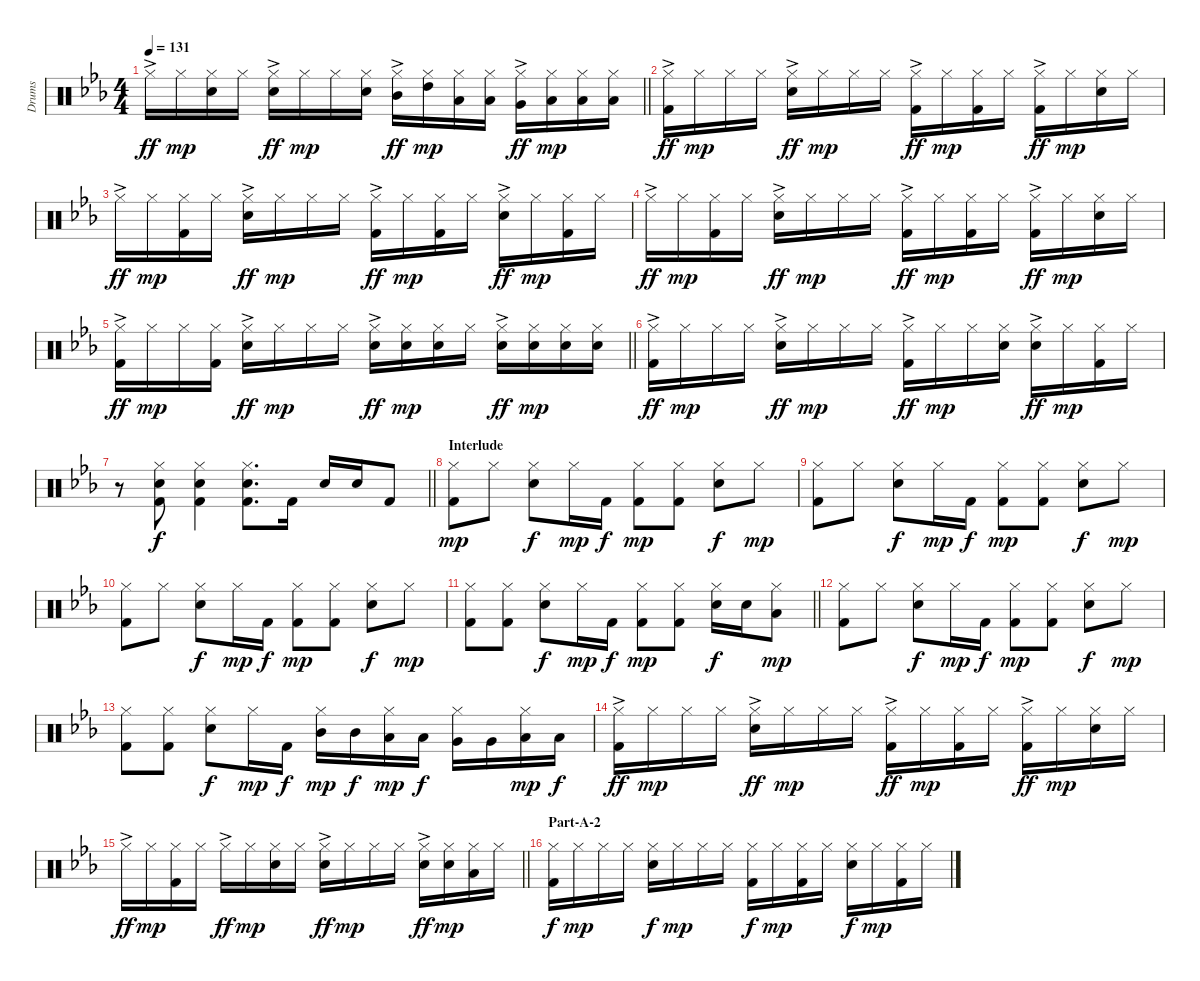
\track ("Drums" "Drums") {instrument percussion}
\staff {score}
\articulation defaults
\ts (4 4)
\tempo 131
\clef neutral
\barLineRight lightlight
\ks eb "Hi-Hat (closed)"{ac}.16{dy ff} "Hi-Hat (closed)".16{dy mp}
("Hi-Hat (closed)" "Snare (hit) 2").16 "Hi-Hat (closed)".16 ("Hi-Hat (closed)"{ac} "Snare (hit) 2").16{dy ff} "Hi-Hat (closed)".16{dy mp} "Hi-Hat (closed)".16 ("Hi-Hat (closed)" "Snare (hit) 2").16 ("Hi-Hat (closed)"{ac} "Mid Tom (hit)").16{dy ff} ("Hi-Hat (closed)" "High Tom (hit)").16{dy mp} ("Hi-Hat (closed)" "Low Tom (hit)").16 ("Hi-Hat (closed)" "Low Tom (hit)").16 ("Hi-Hat (closed)"{ac} "Very Low Tom (hit)").16{dy ff} ("Hi-Hat (closed)" "Low Floor Tom (hit)").16{dy mp} ("Hi-Hat (closed)" "Low Floor Tom (hit)").16 ("Hi-Hat (closed)" "Low Floor Tom (hit)").16 |
("Hi-Hat (closed)"{ac} "Kick (hit) 2").16{dy ff} "Hi-Hat (closed)".16{dy mp} "Hi-Hat (closed)".16 "Hi-Hat (closed)".16 ("Hi-Hat (closed)"{ac} "Snare (hit) 2").16{dy ff} "Hi-Hat (closed)".16{dy mp} "Hi-Hat (closed)".16 "Hi-Hat (closed)".16 ("Hi-Hat (closed)"{ac} "Kick (hit) 2").16{dy ff} "Hi-Hat (closed)".16{dy mp} ("Hi-Hat (closed)" "Kick (hit) 2").16 "Hi-Hat (closed)".16 ("Hi-Hat (closed)"{ac} "Kick (hit) 2").16{dy ff} "Hi-Hat (closed)".16{dy mp} ("Hi-Hat (closed)" "Snare (hit) 2").16 "Hi-Hat (closed)".16 |
"Hi-Hat (closed)"{ac}.16{dy ff} "Hi-Hat (closed)".16{dy mp} ("Hi-Hat (closed)" "Kick (hit) 2").16 "Hi-Hat (closed)".16 ("Hi-Hat (closed)"{ac} "Snare (hit) 2").16{dy ff} "Hi-Hat (closed)".16{dy mp} "Hi-Hat (closed)".16 "Hi-Hat (closed)".16 ("Hi-Hat (closed)"{ac} "Kick (hit) 2").16{dy ff} "Hi-Hat (closed)".16{dy mp} ("Hi-Hat (closed)" "Kick (hit) 2").16 "Hi-Hat (closed)".16 ("Hi-Hat (closed)"{ac} "Snare (hit) 2").16{dy ff} "Hi-Hat (closed)".16{dy mp} ("Hi-Hat (closed)" "Kick (hit) 2").16 "Hi-Hat (closed)".16 |
"Hi-Hat (closed)"{ac}.16{dy ff} "Hi-Hat (closed)".16{dy mp} ("Hi-Hat (closed)" "Kick (hit) 2").16 "Hi-Hat (closed)".16 ("Hi-Hat (closed)"{ac} "Snare (hit) 2").16{dy ff} "Hi-Hat (closed)".16{dy mp} "Hi-Hat (closed)".16 "Hi-Hat (closed)".16 ("Hi-Hat (closed)"{ac} "Kick (hit) 2").16{dy ff} "Hi-Hat (closed)".16{dy mp} ("Hi-Hat (closed)" "Kick (hit) 2").16 "Hi-Hat (closed)".16 ("Hi-Hat (closed)"{ac} "Kick (hit) 2").16{dy ff} "Hi-Hat (closed)".16{dy mp} ("Hi-Hat (closed)" "Snare (hit) 2").16 "Hi-Hat (closed)".16 |
\barLineRight lightlight
("Hi-Hat (closed)"{ac} "Kick (hit) 2").16{dy ff} "Hi-Hat (closed)".16{dy mp} "Hi-Hat (closed)".16 ("Hi-Hat (closed)" "Kick (hit) 2").16 ("Hi-Hat (closed)"{ac} "Snare (hit) 2").16{dy ff} "Hi-Hat (closed)".16{dy mp} "Hi-Hat (closed)".16 "Hi-Hat (closed)".16 ("Hi-Hat (closed)"{ac} "Snare (hit) 2").16{dy ff} ("Hi-Hat (closed)" "Snare (hit) 2").16{dy mp} ("Hi-Hat (closed)" "Snare (hit) 2").16 "Hi-Hat (closed)".16 ("Hi-Hat (closed)"{ac} "Snare (hit) 2").16{dy ff} ("Hi-Hat (closed)" "Snare (hit) 2").16{dy mp} ("Hi-Hat (closed)" "Snare (hit) 2").16 ("Hi-Hat (closed)" "Snare (hit) 2").16 |
("Hi-Hat (closed)"{ac} "Kick (hit) 2").16{dy ff} "Hi-Hat (closed)".16{dy mp} "Hi-Hat (closed)".16 "Hi-Hat (closed)".16 ("Hi-Hat (closed)"{ac} "Snare (hit) 2").16{dy ff} "Hi-Hat (closed)".16{dy mp} "Hi-Hat (closed)".16 "Hi-Hat (closed)".16 ("Hi-Hat (closed)"{ac} "Kick (hit) 2").16{dy ff} "Hi-Hat (closed)".16{dy mp} "Hi-Hat (closed)".16 ("Hi-Hat (closed)" "Snare (hit) 2").16 ("Hi-Hat (closed)"{ac} "Snare (hit) 2").16{dy ff} "Hi-Hat (closed)".16{dy mp} ("Hi-Hat (closed)" "Kick (hit) 2").16 "Hi-Hat (closed)".16 |
\barLineRight lightlight
r.8 ("Hi-Hat (closed)" "Snare (hit) 2" "Kick (hit) 2").8{dy f} ("Hi-Hat (closed)" "Snare (hit) 2" "Kick (hit) 2").4 ("Hi-Hat (closed)" "Snare (hit) 2" "Kick (hit) 2").8{d} "Kick (hit) 2".16 "Snare (hit) 2".16 "Snare (hit) 2".16 "Kick (hit) 2".8 |
\section ("" "Interlude")
("Hi-Hat (closed)" "Kick (hit) 2").8{dy mp} "Hi-Hat (closed)".8 ("Hi-Hat (closed)" "Snare (hit) 2").8{dy f} "Hi-Hat (closed)".16{dy mp} "Kick (hit) 2".16{dy f} ("Hi-Hat (closed)" "Kick (hit) 2").8{dy mp} ("Hi-Hat (closed)" "Kick (hit) 2").8 ("Hi-Hat (closed)" "Snare (hit) 2").8{dy f} "Hi-Hat (closed)".8{dy mp} |
("Hi-Hat (closed)" "Kick (hit) 2").8 "Hi-Hat (closed)".8 ("Hi-Hat (closed)" "Snare (hit) 2").8{dy f} "Hi-Hat (closed)".16{dy mp} "Kick (hit) 2".16{dy f} ("Hi-Hat (closed)" "Kick (hit) 2").8{dy mp} ("Hi-Hat (closed)" "Kick (hit) 2").8 ("Hi-Hat (closed)" "Snare (hit) 2").8{dy f} "Hi-Hat (closed)".8{dy mp} |
("Hi-Hat (closed)" "Kick (hit) 2").8 "Hi-Hat (closed)".8 ("Hi-Hat (closed)" "Snare (hit) 2").8{dy f} "Hi-Hat (closed)".16{dy mp} "Kick (hit) 2".16{dy f} ("Hi-Hat (closed)" "Kick (hit) 2").8{dy mp} ("Hi-Hat (closed)" "Kick (hit) 2").8 ("Hi-Hat (closed)" "Snare (hit) 2").8{dy f} "Hi-Hat (closed)".8{dy mp} |
\barLineRight lightlight
("Hi-Hat (closed)" "Kick (hit) 2").8 ("Hi-Hat (closed)" "Kick (hit) 2").8 ("Hi-Hat (closed)" "Snare (hit) 2").8{dy f} "Hi-Hat (closed)".16{dy mp} "Kick (hit) 2".16{dy f} ("Hi-Hat (closed)" "Kick (hit) 2").8{dy mp} ("Hi-Hat (closed)" "Kick (hit) 2").8 ("Hi-Hat (closed)" "Snare (hit) 2").16{dy f} "Snare (hit) 2".16 ("Hi-Hat (closed)" "Low Tom (hit)").8{dy mp} |
("Hi-Hat (closed)" "Kick (hit) 2").8 "Hi-Hat (closed)".8 ("Hi-Hat (closed)" "Snare (hit) 2").8{dy f} "Hi-Hat (closed)".16{dy mp} "Kick (hit) 2".16{dy f} ("Hi-Hat (closed)" "Kick (hit) 2").8{dy mp} ("Hi-Hat (closed)" "Kick (hit) 2").8 ("Hi-Hat (closed)" "Snare (hit) 2").8{dy f} "Hi-Hat (closed)".8{dy mp} |
("Hi-Hat (closed)" "Kick (hit) 2").8 ("Hi-Hat (closed)" "Kick (hit) 2").8 ("Hi-Hat (closed)" "Snare (hit) 2").8{dy f} "Hi-Hat (closed)".16{dy mp} "Kick (hit) 2".16{dy f} ("Hi-Hat (closed)" "Mid Tom (hit)").16{dy mp} "Mid Tom (hit)".16{dy f} ("Hi-Hat (closed)" "Low Tom (hit)").16{dy mp} "Low Tom (hit)".16{dy f} ("Hi-Hat (closed)" "Very Low Tom (hit)").16 "Very Low Tom (hit)".16 ("Hi-Hat (closed)" "Low Floor Tom (hit)").16{dy mp} "Low Floor Tom (hit)".16{dy f} |
("Hi-Hat (closed)"{ac} "Kick (hit) 2").16{dy ff} "Hi-Hat (closed)".16{dy mp} "Hi-Hat (closed)".16 "Hi-Hat (closed)".16 ("Hi-Hat (closed)"{ac} "Snare (hit) 2").16{dy ff} "Hi-Hat (closed)".16{dy mp} "Hi-Hat (closed)".16 "Hi-Hat (closed)".16 ("Hi-Hat (closed)"{ac} "Kick (hit) 2").16{dy ff} "Hi-Hat (closed)".16{dy mp} ("Hi-Hat (closed)" "Kick (hit) 2").16 "Hi-Hat (closed)".16 ("Hi-Hat (closed)"{ac} "Kick (hit) 2").16{dy ff} "Hi-Hat (closed)".16{dy mp} ("Hi-Hat (closed)" "Snare (hit) 2").16 "Hi-Hat (closed)".16 |
\barLineRight lightlight "Hi-Hat (closed)"{ac}.16{dy ff} "Hi-Hat (closed)".16{dy mp}
("Hi-Hat (closed)" "Kick (hit) 2").16 "Hi-Hat (closed)".16 "Hi-Hat (closed)"{ac}.16{dy ff} "Hi-Hat (closed)".16{dy mp} ("Hi-Hat (closed)" "Snare (hit) 2").16 "Hi-Hat (closed)".16 ("Hi-Hat (closed)"{ac} "Snare (hit) 2").16{dy ff} "Hi-Hat (closed)".16{dy mp} "Hi-Hat (closed)".16 "Hi-Hat (closed)".16 ("Hi-Hat (closed)"{ac} "Snare (hit) 2").16{dy ff} ("Hi-Hat (closed)" "Snare (hit) 2").16{dy mp} ("Hi-Hat (closed)" "Low Tom (hit)").16 "Hi-Hat (closed)".16 |
\section ("" "Part-A-2")
("Hi-Hat (closed)" "Kick (hit) 2").16{dy f} "Hi-Hat (closed)".16{dy mp} "Hi-Hat (closed)".16 "Hi-Hat (closed)".16 ("Hi-Hat (closed)" "Snare (hit) 2").16{dy f} "Hi-Hat (closed)".16{dy mp} "Hi-Hat (closed)".16 "Hi-Hat (closed)".16 ("Hi-Hat (closed)" "Kick (hit) 2").16{dy f} "Hi-Hat (closed)".16{dy mp} ("Hi-Hat (closed)" "Kick (hit) 2").16 "Hi-Hat (closed)".16 ("Hi-Hat (closed)" "Snare (hit) 2").16{dy f} "Hi-Hat (closed)".16{dy mp} ("Hi-Hat (closed)" "Kick (hit) 2").16 "Hi-Hat (closed)".16
